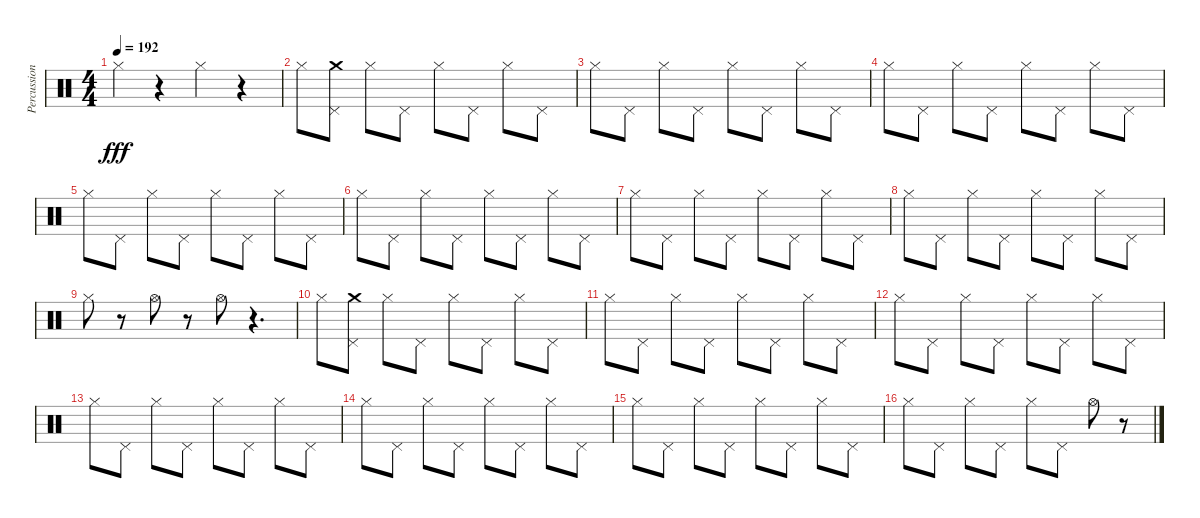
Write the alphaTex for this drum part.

\track ("Percussion" "Percussion") {instrument percussion}
\staff {score}
\articulation defaults
\ts (4 4)
\tempo 192
\clef neutral
\ks c "Hi-Hat (closed)".4{dy fff}
r.4 "Hi-Hat (closed)".4 r.4 |
"Hi-Hat (closed)".8 ("Pedal Hi-Hat (hit)" "Crash medium (hit)").8 "Hi-Hat (closed)".8 "Pedal Hi-Hat (hit)".8 "Hi-Hat (closed)".8 "Pedal Hi-Hat (hit)".8 "Hi-Hat (closed)".8 "Pedal Hi-Hat (hit)".8 |
"Hi-Hat (closed)".8 "Pedal Hi-Hat (hit)".8 "Hi-Hat (closed)".8 "Pedal Hi-Hat (hit)".8 "Hi-Hat (closed)".8 "Pedal Hi-Hat (hit)".8 "Hi-Hat (closed)".8 "Pedal Hi-Hat (hit)".8 |
"Hi-Hat (closed)".8 "Pedal Hi-Hat (hit)".8 "Hi-Hat (closed)".8 "Pedal Hi-Hat (hit)".8 "Hi-Hat (closed)".8 "Pedal Hi-Hat (hit)".8 "Hi-Hat (closed)".8 "Pedal Hi-Hat (hit)".8 |
"Hi-Hat (closed)".8 "Pedal Hi-Hat (hit)".8 "Hi-Hat (closed)".8 "Pedal Hi-Hat (hit)".8 "Hi-Hat (closed)".8 "Pedal Hi-Hat (hit)".8 "Hi-Hat (closed)".8 "Pedal Hi-Hat (hit)".8 |
"Hi-Hat (closed)".8 "Pedal Hi-Hat (hit)".8 "Hi-Hat (closed)".8 "Pedal Hi-Hat (hit)".8 "Hi-Hat (closed)".8 "Pedal Hi-Hat (hit)".8 "Hi-Hat (closed)".8 "Pedal Hi-Hat (hit)".8 |
"Hi-Hat (closed)".8 "Pedal Hi-Hat (hit)".8 "Hi-Hat (closed)".8 "Pedal Hi-Hat (hit)".8 "Hi-Hat (closed)".8 "Pedal Hi-Hat (hit)".8 "Hi-Hat (closed)".8 "Pedal Hi-Hat (hit)".8 |
"Hi-Hat (closed)".8 "Pedal Hi-Hat (hit)".8 "Hi-Hat (closed)".8 "Pedal Hi-Hat (hit)".8 "Hi-Hat (closed)".8 "Pedal Hi-Hat (hit)".8 "Hi-Hat (closed)".8 "Pedal Hi-Hat (hit)".8 |
"Hi-Hat (closed)".8 r.8 "Hi-Hat (open)".8 r.8 "Hi-Hat (open)".8 r.4{d} |
"Hi-Hat (closed)".8 ("Pedal Hi-Hat (hit)" "Crash medium (hit)").8 "Hi-Hat (closed)".8 "Pedal Hi-Hat (hit)".8 "Hi-Hat (closed)".8 "Pedal Hi-Hat (hit)".8 "Hi-Hat (closed)".8 "Pedal Hi-Hat (hit)".8 |
"Hi-Hat (closed)".8 "Pedal Hi-Hat (hit)".8 "Hi-Hat (closed)".8 "Pedal Hi-Hat (hit)".8 "Hi-Hat (closed)".8 "Pedal Hi-Hat (hit)".8 "Hi-Hat (closed)".8 "Pedal Hi-Hat (hit)".8 |
"Hi-Hat (closed)".8 "Pedal Hi-Hat (hit)".8 "Hi-Hat (closed)".8 "Pedal Hi-Hat (hit)".8 "Hi-Hat (closed)".8 "Pedal Hi-Hat (hit)".8 "Hi-Hat (closed)".8 "Pedal Hi-Hat (hit)".8 |
"Hi-Hat (closed)".8 "Pedal Hi-Hat (hit)".8 "Hi-Hat (closed)".8 "Pedal Hi-Hat (hit)".8 "Hi-Hat (closed)".8 "Pedal Hi-Hat (hit)".8 "Hi-Hat (closed)".8 "Pedal Hi-Hat (hit)".8 |
"Hi-Hat (closed)".8 "Pedal Hi-Hat (hit)".8 "Hi-Hat (closed)".8 "Pedal Hi-Hat (hit)".8 "Hi-Hat (closed)".8 "Pedal Hi-Hat (hit)".8 "Hi-Hat (closed)".8 "Pedal Hi-Hat (hit)".8 |
"Hi-Hat (closed)".8 "Pedal Hi-Hat (hit)".8 "Hi-Hat (closed)".8 "Pedal Hi-Hat (hit)".8 "Hi-Hat (closed)".8 "Pedal Hi-Hat (hit)".8 "Hi-Hat (closed)".8 "Pedal Hi-Hat (hit)".8 |
"Hi-Hat (closed)".8 "Pedal Hi-Hat (hit)".8 "Hi-Hat (closed)".8 "Pedal Hi-Hat (hit)".8 "Hi-Hat (closed)".8 "Pedal Hi-Hat (hit)".8 "Hi-Hat (open)".8 r.8
